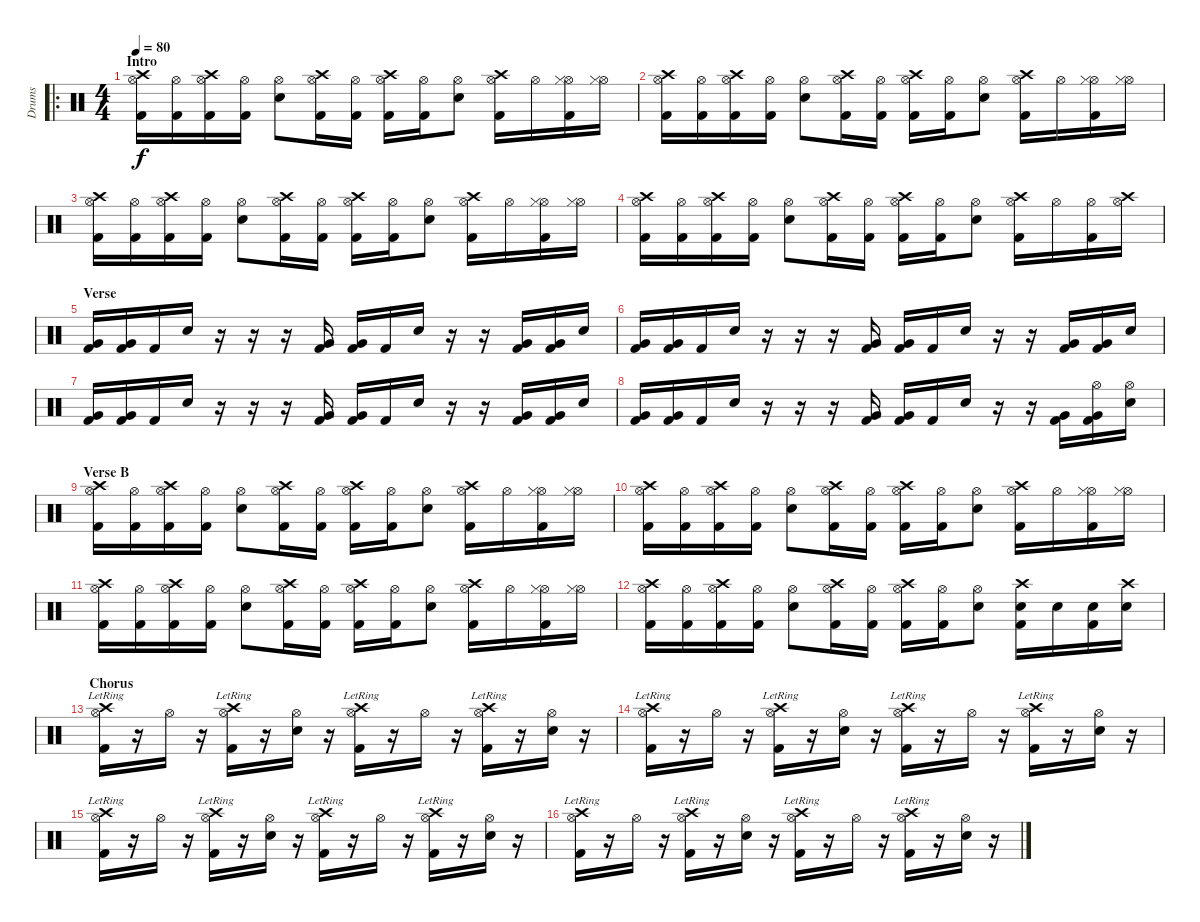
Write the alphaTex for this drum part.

\track ("Drums" "Drums") {instrument percussion}
\staff {score}
\articulation defaults
\ro
\ts (4 4)
\section ("" "Intro")
\tempo 80
\clef neutral
\ks c
("Crash high (hit)" "Hi-Hat (open)" "Kick (hit) 2").16{dy f} ("Hi-Hat (open)" "Kick (hit) 2").16 ("Crash high (hit)" "Hi-Hat (open)" "Kick (hit) 2").16 ("Hi-Hat (open)" "Kick (hit) 2").16 ("Hi-Hat (open)" "Snare (hit) 2").8 ("Crash high (hit)" "Hi-Hat (open)" "Kick (hit) 2").16 ("Hi-Hat (open)" "Kick (hit) 2").16 ("Crash high (hit)" "Hi-Hat (open)" "Kick (hit) 2").16 ("Hi-Hat (open)" "Kick (hit) 2").16 ("Hi-Hat (open)" "Snare (hit) 2").8 ("Crash high (hit)" "Hi-Hat (open)" "Kick (hit) 2").16 "Hi-Hat (open)".16 ("Hi-Hat (open)" "Hi-Hat (closed)" "Kick (hit) 2").16 ("Hi-Hat (open)" "Hi-Hat (closed)").16 |
("Crash high (hit)" "Hi-Hat (open)" "Kick (hit) 2").16 ("Hi-Hat (open)" "Kick (hit) 2").16 ("Crash high (hit)" "Hi-Hat (open)" "Kick (hit) 2").16 ("Hi-Hat (open)" "Kick (hit) 2").16 ("Hi-Hat (open)" "Snare (hit) 2").8 ("Crash high (hit)" "Hi-Hat (open)" "Kick (hit) 2").16 ("Hi-Hat (open)" "Kick (hit) 2").16 ("Crash high (hit)" "Hi-Hat (open)" "Kick (hit) 2").16 ("Hi-Hat (open)" "Kick (hit) 2").16 ("Hi-Hat (open)" "Snare (hit) 2").8 ("Crash high (hit)" "Hi-Hat (open)" "Kick (hit) 2").16 "Hi-Hat (open)".16 ("Hi-Hat (open)" "Hi-Hat (closed)" "Kick (hit) 2").16 ("Hi-Hat (open)" "Hi-Hat (closed)").16 |
("Crash high (hit)" "Hi-Hat (open)" "Kick (hit) 2").16 ("Hi-Hat (open)" "Kick (hit) 2").16 ("Crash high (hit)" "Hi-Hat (open)" "Kick (hit) 2").16 ("Hi-Hat (open)" "Kick (hit) 2").16 ("Hi-Hat (open)" "Snare (hit) 2").8 ("Crash high (hit)" "Hi-Hat (open)" "Kick (hit) 2").16 ("Hi-Hat (open)" "Kick (hit) 2").16 ("Crash high (hit)" "Hi-Hat (open)" "Kick (hit) 2").16 ("Hi-Hat (open)" "Kick (hit) 2").16 ("Hi-Hat (open)" "Snare (hit) 2").8 ("Crash high (hit)" "Hi-Hat (open)" "Kick (hit) 2").16 "Hi-Hat (open)".16 ("Hi-Hat (open)" "Hi-Hat (closed)" "Kick (hit) 2").16 ("Hi-Hat (open)" "Hi-Hat (closed)").16 |
("Crash high (hit)" "Hi-Hat (open)" "Kick (hit) 2").16 ("Hi-Hat (open)" "Kick (hit) 2").16 ("Crash high (hit)" "Hi-Hat (open)" "Kick (hit) 2").16 ("Hi-Hat (open)" "Kick (hit) 2").16 ("Hi-Hat (open)" "Snare (hit) 2").8 ("Crash high (hit)" "Hi-Hat (open)" "Kick (hit) 2").16 ("Hi-Hat (open)" "Kick (hit) 2").16 ("Crash high (hit)" "Hi-Hat (open)" "Kick (hit) 2").16 ("Hi-Hat (open)" "Kick (hit) 2").16 ("Hi-Hat (open)" "Snare (hit) 2").8 ("Crash high (hit)" "Hi-Hat (open)" "Kick (hit) 2").16 "Hi-Hat (open)".16 ("Hi-Hat (open)" "Kick (hit) 2").16 ("Crash high (hit)" "Hi-Hat (open)").16 |
\section ("" "Verse")
("Very Low Tom (hit)" "Kick (hit) 2").16 ("Very Low Tom (hit)" "Kick (hit) 2").16 "Kick (hit) 2".16 "Snare (hit) 2".16 r.16 r.16 r.16 ("Very Low Tom (hit)" "Kick (hit) 2").16 ("Very Low Tom (hit)" "Kick (hit) 2").16 "Kick (hit) 2".16 "Snare (hit) 2".16 r.16 r.16 ("Very Low Tom (hit)" "Kick (hit) 2").16 ("Very Low Tom (hit)" "Kick (hit) 2").16 "Snare (hit) 2".16 |
("Very Low Tom (hit)" "Kick (hit) 2").16 ("Very Low Tom (hit)" "Kick (hit) 2").16 "Kick (hit) 2".16 "Snare (hit) 2".16 r.16 r.16 r.16 ("Very Low Tom (hit)" "Kick (hit) 2").16 ("Very Low Tom (hit)" "Kick (hit) 2").16 "Kick (hit) 2".16 "Snare (hit) 2".16 r.16 r.16 ("Very Low Tom (hit)" "Kick (hit) 2").16 ("Very Low Tom (hit)" "Kick (hit) 2").16 "Snare (hit) 2".16 |
("Very Low Tom (hit)" "Kick (hit) 2").16 ("Very Low Tom (hit)" "Kick (hit) 2").16 "Kick (hit) 2".16 "Snare (hit) 2".16 r.16 r.16 r.16 ("Very Low Tom (hit)" "Kick (hit) 2").16 ("Very Low Tom (hit)" "Kick (hit) 2").16 "Kick (hit) 2".16 "Snare (hit) 2".16 r.16 r.16 ("Very Low Tom (hit)" "Kick (hit) 2").16 ("Very Low Tom (hit)" "Kick (hit) 2").16 "Snare (hit) 2".16 |
("Very Low Tom (hit)" "Kick (hit) 2").16 ("Very Low Tom (hit)" "Kick (hit) 2").16 "Kick (hit) 2".16 "Snare (hit) 2".16 r.16 r.16 r.16 ("Very Low Tom (hit)" "Kick (hit) 2").16 ("Very Low Tom (hit)" "Kick (hit) 2").16 "Kick (hit) 2".16 "Snare (hit) 2".16 r.16 r.16 ("Very Low Tom (hit)" "Kick (hit) 2").16 ("Hi-Hat (open)" "Very Low Tom (hit)" "Kick (hit) 2").16 ("Hi-Hat (open)" "Snare (hit) 2").16 |
\section ("" "Verse B")
("Crash high (hit)" "Hi-Hat (open)" "Kick (hit) 2").16 ("Hi-Hat (open)" "Kick (hit) 2").16 ("Crash high (hit)" "Hi-Hat (open)" "Kick (hit) 2").16 ("Hi-Hat (open)" "Kick (hit) 2").16 ("Hi-Hat (open)" "Snare (hit) 2").8 ("Crash high (hit)" "Hi-Hat (open)" "Kick (hit) 2").16 ("Hi-Hat (open)" "Kick (hit) 2").16 ("Crash high (hit)" "Hi-Hat (open)" "Kick (hit) 2").16 ("Hi-Hat (open)" "Kick (hit) 2").16 ("Hi-Hat (open)" "Snare (hit) 2").8 ("Crash high (hit)" "Hi-Hat (open)" "Kick (hit) 2").16 "Hi-Hat (open)".16 ("Hi-Hat (open)" "Hi-Hat (closed)" "Kick (hit) 2").16 ("Hi-Hat (open)" "Hi-Hat (closed)").16 |
("Crash high (hit)" "Hi-Hat (open)" "Kick (hit) 2").16 ("Hi-Hat (open)" "Kick (hit) 2").16 ("Crash high (hit)" "Hi-Hat (open)" "Kick (hit) 2").16 ("Hi-Hat (open)" "Kick (hit) 2").16 ("Hi-Hat (open)" "Snare (hit) 2").8 ("Crash high (hit)" "Hi-Hat (open)" "Kick (hit) 2").16 ("Hi-Hat (open)" "Kick (hit) 2").16 ("Crash high (hit)" "Hi-Hat (open)" "Kick (hit) 2").16 ("Hi-Hat (open)" "Kick (hit) 2").16 ("Hi-Hat (open)" "Snare (hit) 2").8 ("Crash high (hit)" "Hi-Hat (open)" "Kick (hit) 2").16 "Hi-Hat (open)".16 ("Hi-Hat (open)" "Hi-Hat (closed)" "Kick (hit) 2").16 ("Hi-Hat (open)" "Hi-Hat (closed)").16 |
("Crash high (hit)" "Hi-Hat (open)" "Kick (hit) 2").16 ("Hi-Hat (open)" "Kick (hit) 2").16 ("Crash high (hit)" "Hi-Hat (open)" "Kick (hit) 2").16 ("Hi-Hat (open)" "Kick (hit) 2").16 ("Hi-Hat (open)" "Snare (hit) 2").8 ("Crash high (hit)" "Hi-Hat (open)" "Kick (hit) 2").16 ("Hi-Hat (open)" "Kick (hit) 2").16 ("Crash high (hit)" "Hi-Hat (open)" "Kick (hit) 2").16 ("Hi-Hat (open)" "Kick (hit) 2").16 ("Hi-Hat (open)" "Snare (hit) 2").8 ("Crash high (hit)" "Hi-Hat (open)" "Kick (hit) 2").16 "Hi-Hat (open)".16 ("Hi-Hat (open)" "Hi-Hat (closed)" "Kick (hit) 2").16 ("Hi-Hat (open)" "Hi-Hat (closed)").16 |
("Crash high (hit)" "Hi-Hat (open)" "Kick (hit) 2").16 ("Hi-Hat (open)" "Kick (hit) 2").16 ("Crash high (hit)" "Hi-Hat (open)" "Kick (hit) 2").16 ("Hi-Hat (open)" "Kick (hit) 2").16 ("Hi-Hat (open)" "Snare (hit) 2").8 ("Crash high (hit)" "Hi-Hat (open)" "Kick (hit) 2").16 ("Hi-Hat (open)" "Kick (hit) 2").16 ("Crash high (hit)" "Hi-Hat (open)" "Kick (hit) 2").16 ("Hi-Hat (open)" "Kick (hit) 2").16 ("Hi-Hat (open)" "Snare (hit) 2").8 ("Crash high (hit)" "Snare (hit) 2" "Kick (hit) 2").16 "Snare (hit) 2".16 ("Snare (hit) 2" "Kick (hit) 2").16 ("Crash high (hit)" "Snare (hit) 2").16 |
\section ("" "Chorus")
("Crash high (hit)"{lr} "Hi-Hat (open)" "Kick (hit) 2").16 r.16 "Hi-Hat (open)".16 r.16 ("Crash high (hit)"{lr} "Hi-Hat (open)" "Kick (hit) 2").16 r.16 ("Hi-Hat (open)" "Snare (hit) 2").16 r.16 ("Crash high (hit)"{lr} "Hi-Hat (open)" "Kick (hit) 2").16 r.16 "Hi-Hat (open)".16 r.16 ("Crash high (hit)"{lr} "Hi-Hat (open)" "Kick (hit) 2").16 r.16 ("Hi-Hat (open)" "Snare (hit) 2").16 r.16 |
("Crash high (hit)"{lr} "Hi-Hat (open)" "Kick (hit) 2").16 r.16 "Hi-Hat (open)".16 r.16 ("Crash high (hit)"{lr} "Hi-Hat (open)" "Kick (hit) 2").16 r.16 ("Hi-Hat (open)" "Snare (hit) 2").16 r.16 ("Crash high (hit)"{lr} "Hi-Hat (open)" "Kick (hit) 2").16 r.16 "Hi-Hat (open)".16 r.16 ("Crash high (hit)"{lr} "Hi-Hat (open)" "Kick (hit) 2").16 r.16 ("Hi-Hat (open)" "Snare (hit) 2").16 r.16 |
("Crash high (hit)"{lr} "Hi-Hat (open)" "Kick (hit) 2").16 r.16 "Hi-Hat (open)".16 r.16 ("Crash high (hit)"{lr} "Hi-Hat (open)" "Kick (hit) 2").16 r.16 ("Hi-Hat (open)" "Snare (hit) 2").16 r.16 ("Crash high (hit)"{lr} "Hi-Hat (open)" "Kick (hit) 2").16 r.16 "Hi-Hat (open)".16 r.16 ("Crash high (hit)"{lr} "Hi-Hat (open)" "Kick (hit) 2").16 r.16 ("Hi-Hat (open)" "Snare (hit) 2").16 r.16 |
("Crash high (hit)"{lr} "Hi-Hat (open)" "Kick (hit) 2").16 r.16 "Hi-Hat (open)".16 r.16 ("Crash high (hit)"{lr} "Hi-Hat (open)" "Kick (hit) 2").16 r.16 ("Hi-Hat (open)" "Snare (hit) 2").16 r.16 ("Crash high (hit)"{lr} "Hi-Hat (open)" "Kick (hit) 2").16 r.16 "Hi-Hat (open)".16 r.16 ("Crash high (hit)"{lr} "Hi-Hat (open)" "Kick (hit) 2").16 r.16 ("Hi-Hat (open)" "Snare (hit) 2").16 r.16
